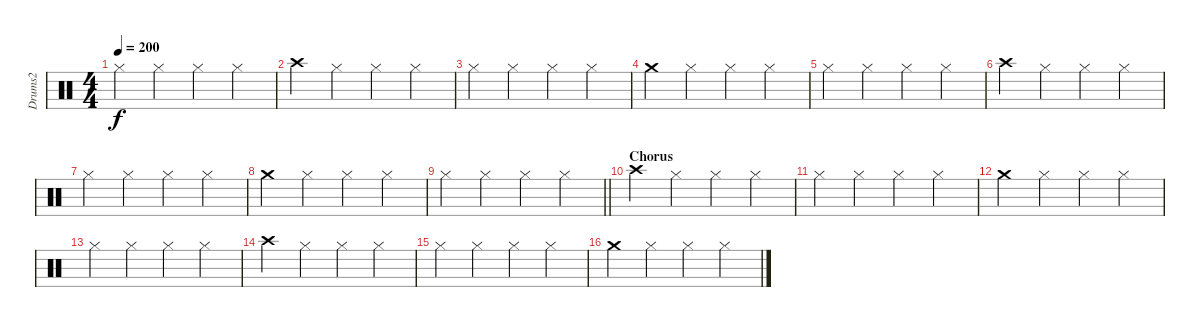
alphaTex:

\track ("Drums2" "Drums2") {instrument percussion}
\staff {score}
\articulation defaults
\ts (4 4)
\tempo 200
\clef neutral
\ks c "Hi-Hat (closed)".4{dy f} "Hi-Hat (closed)".4 "Hi-Hat (closed)".4 "Hi-Hat (closed)".4
|
"Crash high (hit)".4 "Hi-Hat (closed)".4 "Hi-Hat (closed)".4 "Hi-Hat (closed)".4 |
"Hi-Hat (closed)".4 "Hi-Hat (closed)".4 "Hi-Hat (closed)".4 "Hi-Hat (closed)".4 |
"Crash medium (hit)".4 "Hi-Hat (closed)".4 "Hi-Hat (closed)".4 "Hi-Hat (closed)".4 |
"Hi-Hat (closed)".4 "Hi-Hat (closed)".4 "Hi-Hat (closed)".4 "Hi-Hat (closed)".4 |
"Crash high (hit)".4 "Hi-Hat (closed)".4 "Hi-Hat (closed)".4 "Hi-Hat (closed)".4 |
"Hi-Hat (closed)".4 "Hi-Hat (closed)".4 "Hi-Hat (closed)".4 "Hi-Hat (closed)".4 |
"Crash medium (hit)".4 "Hi-Hat (closed)".4 "Hi-Hat (closed)".4 "Hi-Hat (closed)".4 |
\barLineRight lightlight "Hi-Hat (closed)".4 "Hi-Hat (closed)".4 "Hi-Hat (closed)".4 "Hi-Hat (closed)".4
|
\section ("" "Chorus")
"Crash high (hit)".4 "Hi-Hat (closed)".4 "Hi-Hat (closed)".4 "Hi-Hat (closed)".4 |
"Hi-Hat (closed)".4 "Hi-Hat (closed)".4 "Hi-Hat (closed)".4 "Hi-Hat (closed)".4 |
"Crash medium (hit)".4 "Hi-Hat (closed)".4 "Hi-Hat (closed)".4 "Hi-Hat (closed)".4 |
"Hi-Hat (closed)".4 "Hi-Hat (closed)".4 "Hi-Hat (closed)".4 "Hi-Hat (closed)".4 |
"Crash high (hit)".4 "Hi-Hat (closed)".4 "Hi-Hat (closed)".4 "Hi-Hat (closed)".4 |
"Hi-Hat (closed)".4 "Hi-Hat (closed)".4 "Hi-Hat (closed)".4 "Hi-Hat (closed)".4 |
"Crash medium (hit)".4 "Hi-Hat (closed)".4 "Hi-Hat (closed)".4 "Hi-Hat (closed)".4
